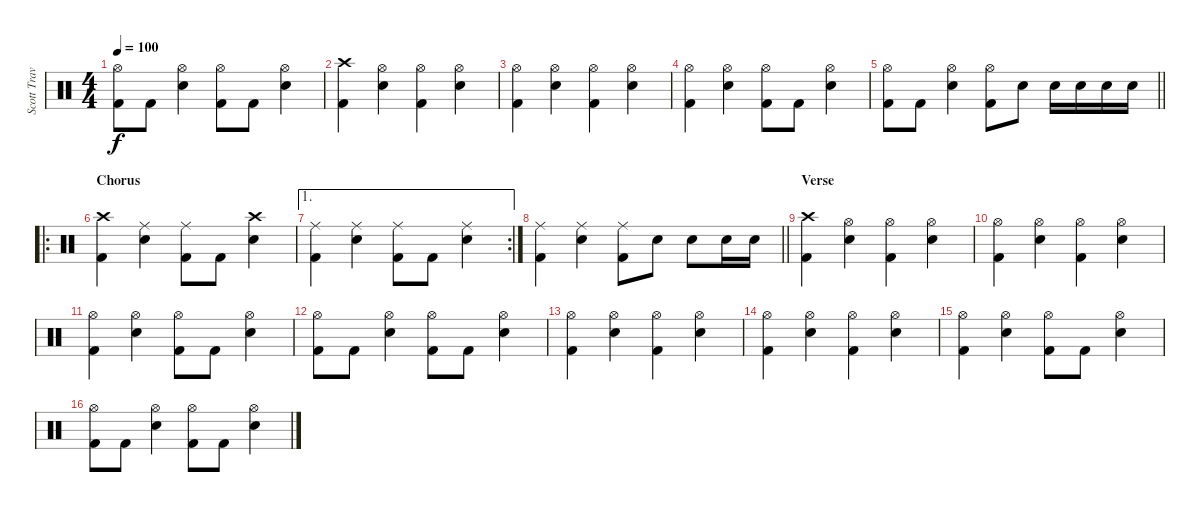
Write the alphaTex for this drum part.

\track ("Scott Travis" "Scott Trav") {instrument percussion}
\staff {score}
\articulation defaults
\ts (4 4)
\tempo 100
\clef neutral
\ks c
("Hi-Hat (open)" "Kick (hit) 2").8{dy f} "Kick (hit) 2".8 ("Hi-Hat (open)" "Snare (hit) 2").4 ("Hi-Hat (open)" "Kick (hit) 2").8 "Kick (hit) 2".8 ("Hi-Hat (open)" "Snare (hit) 2").4 |
("Crash high (hit)" "Kick (hit) 2").4 ("Hi-Hat (open)" "Snare (hit) 2").4 ("Hi-Hat (open)" "Kick (hit) 2").4 ("Hi-Hat (open)" "Snare (hit) 2").4 |
("Hi-Hat (open)" "Kick (hit) 2").4 ("Hi-Hat (open)" "Snare (hit) 2").4 ("Hi-Hat (open)" "Kick (hit) 2").4 ("Hi-Hat (open)" "Snare (hit) 2").4 |
("Hi-Hat (open)" "Kick (hit) 2").4 ("Hi-Hat (open)" "Snare (hit) 2").4 ("Hi-Hat (open)" "Kick (hit) 2").8 "Kick (hit) 2".8 ("Hi-Hat (open)" "Snare (hit) 2").4 |
\barLineRight lightlight
("Hi-Hat (open)" "Kick (hit) 2").8 "Kick (hit) 2".8 ("Hi-Hat (open)" "Snare (hit) 2").4 ("Hi-Hat (open)" "Kick (hit) 2").8 "Snare (hit) 2".8 "Snare (hit) 2".16 "Snare (hit) 2".16 "Snare (hit) 2".16 "Snare (hit) 2".16 |
\ro
\section ("" "Chorus")
("Crash high (hit)" "Kick (hit) 2").4 ("Ride (middle)" "Snare (hit) 2").4 ("Ride (middle)" "Kick (hit) 2").8 "Kick (hit) 2".8 ("Crash high (hit)" "Snare (hit) 2").4 |
\ae 1
\rc 2
("Ride (middle)" "Kick (hit) 2").4 ("Ride (middle)" "Snare (hit) 2").4 ("Ride (middle)" "Kick (hit) 2").8 "Kick (hit) 2".8 ("Ride (middle)" "Snare (hit) 2").4 |
\barLineRight lightlight
("Ride (middle)" "Kick (hit) 2").4 ("Ride (middle)" "Snare (hit) 2").4 ("Ride (middle)" "Kick (hit) 2").8 "Snare (hit) 2".8 "Snare (hit) 2".8 "Snare (hit) 2".16 "Snare (hit) 2".16 |
\section ("" "Verse")
("Crash high (hit)" "Kick (hit) 2").4 ("Hi-Hat (open)" "Snare (hit) 2").4 ("Hi-Hat (open)" "Kick (hit) 2").4 ("Hi-Hat (open)" "Snare (hit) 2").4 |
("Hi-Hat (open)" "Kick (hit) 2").4 ("Hi-Hat (open)" "Snare (hit) 2").4 ("Hi-Hat (open)" "Kick (hit) 2").4 ("Hi-Hat (open)" "Snare (hit) 2").4 |
("Hi-Hat (open)" "Kick (hit) 2").4 ("Hi-Hat (open)" "Snare (hit) 2").4 ("Hi-Hat (open)" "Kick (hit) 2").8 "Kick (hit) 2".8 ("Hi-Hat (open)" "Snare (hit) 2").4 |
("Hi-Hat (open)" "Kick (hit) 2").8 "Kick (hit) 2".8 ("Hi-Hat (open)" "Snare (hit) 2").4 ("Hi-Hat (open)" "Kick (hit) 2").8 "Kick (hit) 2".8 ("Hi-Hat (open)" "Snare (hit) 2").4 |
("Hi-Hat (open)" "Kick (hit) 2").4 ("Hi-Hat (open)" "Snare (hit) 2").4 ("Hi-Hat (open)" "Kick (hit) 2").4 ("Hi-Hat (open)" "Snare (hit) 2").4 |
("Hi-Hat (open)" "Kick (hit) 2").4 ("Hi-Hat (open)" "Snare (hit) 2").4 ("Hi-Hat (open)" "Kick (hit) 2").4 ("Hi-Hat (open)" "Snare (hit) 2").4 |
("Hi-Hat (open)" "Kick (hit) 2").4 ("Hi-Hat (open)" "Snare (hit) 2").4 ("Hi-Hat (open)" "Kick (hit) 2").8 "Kick (hit) 2".8 ("Hi-Hat (open)" "Snare (hit) 2").4 |
("Hi-Hat (open)" "Kick (hit) 2").8 "Kick (hit) 2".8 ("Hi-Hat (open)" "Snare (hit) 2").4 ("Hi-Hat (open)" "Kick (hit) 2").8 "Kick (hit) 2".8 ("Hi-Hat (open)" "Snare (hit) 2").4
